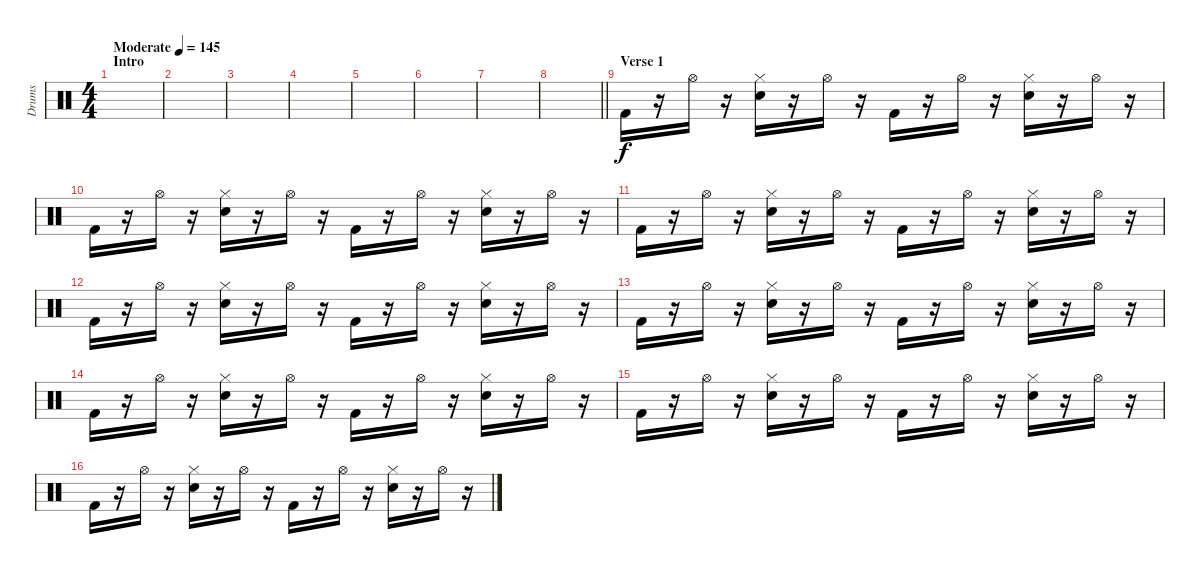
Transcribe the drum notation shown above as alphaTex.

\track ("Drums" "Drums") {instrument percussion}
\staff {score}
\articulation defaults
\ts (4 4)
\section ("" "Intro")
\tempo (145 "Moderate")
\clef neutral
\ks c
|
|
|
|
|
|
|
\barLineRight lightlight
|
\section ("" "Verse 1")
"Kick (hit) 2".16{volume 14} r.16 "Hi-Hat (open)".16 r.16 ("Snare (hit) 2" "Hi-Hat (closed)").16 r.16 "Hi-Hat (open)".16 r.16 "Kick (hit) 2".16 r.16 "Hi-Hat (open)".16 r.16 ("Snare (hit) 2" "Hi-Hat (closed)").16 r.16 "Hi-Hat (open)".16 r.16 |
"Kick (hit) 2".16 r.16 "Hi-Hat (open)".16 r.16 ("Snare (hit) 2" "Hi-Hat (closed)").16 r.16 "Hi-Hat (open)".16 r.16 "Kick (hit) 2".16 r.16 "Hi-Hat (open)".16 r.16 ("Snare (hit) 2" "Hi-Hat (closed)").16 r.16 "Hi-Hat (open)".16 r.16 |
"Kick (hit) 2".16 r.16 "Hi-Hat (open)".16 r.16 ("Snare (hit) 2" "Hi-Hat (closed)").16 r.16 "Hi-Hat (open)".16 r.16 "Kick (hit) 2".16 r.16 "Hi-Hat (open)".16 r.16 ("Snare (hit) 2" "Hi-Hat (closed)").16 r.16 "Hi-Hat (open)".16 r.16 |
"Kick (hit) 2".16 r.16 "Hi-Hat (open)".16 r.16 ("Snare (hit) 2" "Hi-Hat (closed)").16 r.16 "Hi-Hat (open)".16 r.16 "Kick (hit) 2".16 r.16 "Hi-Hat (open)".16 r.16 ("Snare (hit) 2" "Hi-Hat (closed)").16 r.16 "Hi-Hat (open)".16 r.16 |
"Kick (hit) 2".16 r.16 "Hi-Hat (open)".16 r.16 ("Snare (hit) 2" "Hi-Hat (closed)").16 r.16 "Hi-Hat (open)".16 r.16 "Kick (hit) 2".16 r.16 "Hi-Hat (open)".16 r.16 ("Snare (hit) 2" "Hi-Hat (closed)").16 r.16 "Hi-Hat (open)".16 r.16 |
"Kick (hit) 2".16 r.16 "Hi-Hat (open)".16 r.16 ("Snare (hit) 2" "Hi-Hat (closed)").16 r.16 "Hi-Hat (open)".16 r.16 "Kick (hit) 2".16 r.16 "Hi-Hat (open)".16 r.16 ("Snare (hit) 2" "Hi-Hat (closed)").16 r.16 "Hi-Hat (open)".16 r.16 |
"Kick (hit) 2".16 r.16 "Hi-Hat (open)".16 r.16 ("Snare (hit) 2" "Hi-Hat (closed)").16 r.16 "Hi-Hat (open)".16 r.16 "Kick (hit) 2".16 r.16 "Hi-Hat (open)".16 r.16 ("Snare (hit) 2" "Hi-Hat (closed)").16 r.16 "Hi-Hat (open)".16 r.16 |
"Kick (hit) 2".16 r.16 "Hi-Hat (open)".16 r.16 ("Snare (hit) 2" "Hi-Hat (closed)").16 r.16 "Hi-Hat (open)".16 r.16 "Kick (hit) 2".16 r.16 "Hi-Hat (open)".16 r.16 ("Snare (hit) 2" "Hi-Hat (closed)").16 r.16 "Hi-Hat (open)".16 r.16
